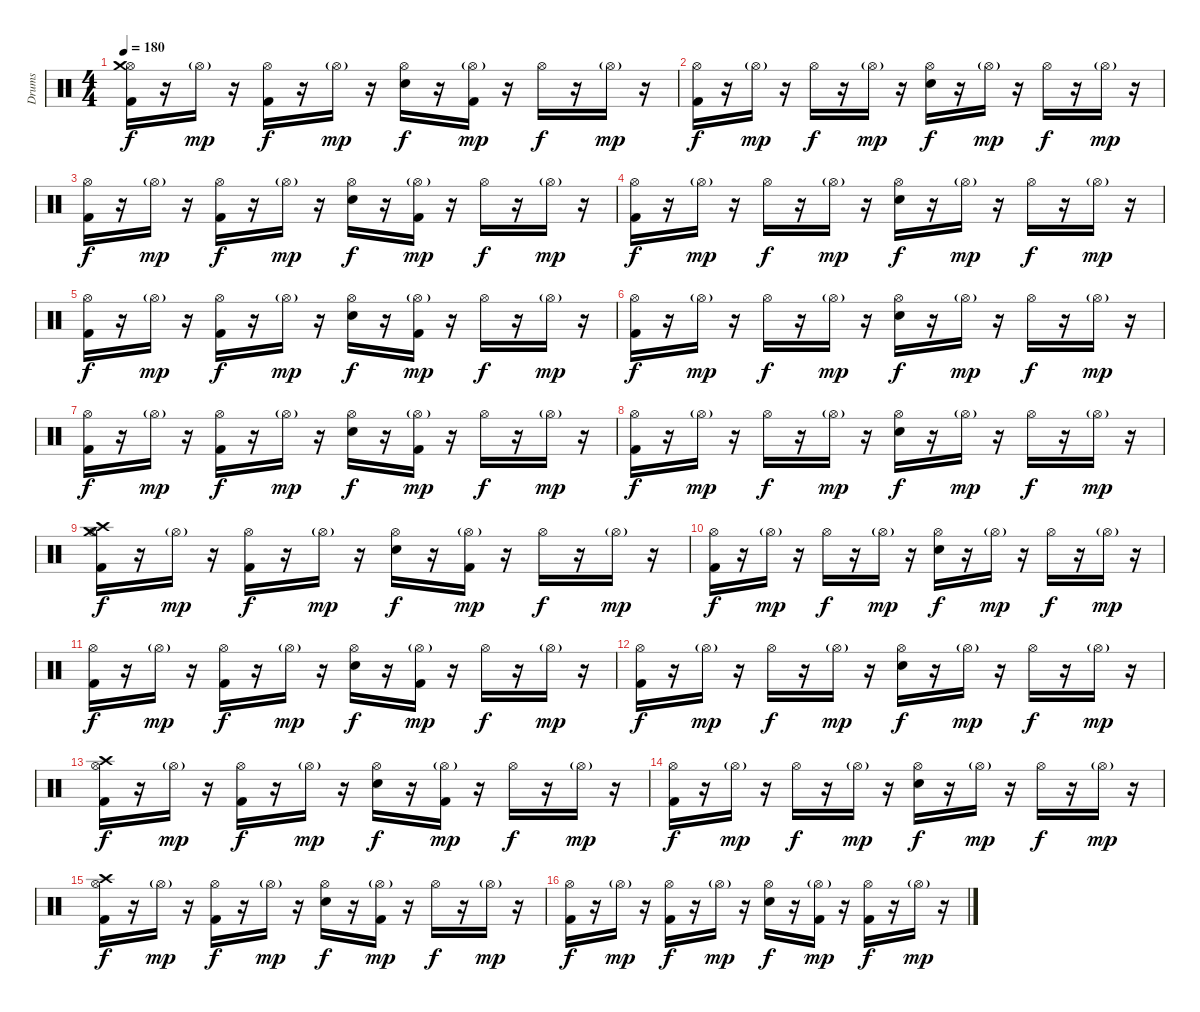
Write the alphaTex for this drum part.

\track ("Drums" "Drums") {instrument percussion}
\staff {score}
\articulation defaults
\ts (4 4)
\tempo 180
\clef neutral
\ks c
("Hi-Hat (open)" "Crash medium (hit)" "Kick (hit) 2").16{dy f} r.16 "Hi-Hat (open)"{g}.16{dy mp} r.16 ("Hi-Hat (open)" "Kick (hit) 2").16{dy f} r.16 "Hi-Hat (open)"{g}.16{dy mp} r.16 ("Hi-Hat (open)" "Electric Snare (hit)").16{dy f} r.16 ("Hi-Hat (open)"{g} "Kick (hit) 2").16{dy mp} r.16 "Hi-Hat (open)".16{dy f} r.16 "Hi-Hat (open)"{g}.16{dy mp} r.16 |
("Hi-Hat (open)" "Kick (hit) 2").16{dy f} r.16 "Hi-Hat (open)"{g}.16{dy mp} r.16 "Hi-Hat (open)".16{dy f} r.16 "Hi-Hat (open)"{g}.16{dy mp} r.16 ("Hi-Hat (open)" "Electric Snare (hit)").16{dy f} r.16 "Hi-Hat (open)"{g}.16{dy mp} r.16 "Hi-Hat (open)".16{dy f} r.16 "Hi-Hat (open)"{g}.16{dy mp} r.16 |
("Hi-Hat (open)" "Kick (hit) 2").16{dy f} r.16 "Hi-Hat (open)"{g}.16{dy mp} r.16 ("Hi-Hat (open)" "Kick (hit) 2").16{dy f} r.16 "Hi-Hat (open)"{g}.16{dy mp} r.16 ("Hi-Hat (open)" "Electric Snare (hit)").16{dy f} r.16 ("Hi-Hat (open)"{g} "Kick (hit) 2").16{dy mp} r.16 "Hi-Hat (open)".16{dy f} r.16 "Hi-Hat (open)"{g}.16{dy mp} r.16 |
("Hi-Hat (open)" "Kick (hit) 2").16{dy f} r.16 "Hi-Hat (open)"{g}.16{dy mp} r.16 "Hi-Hat (open)".16{dy f} r.16 "Hi-Hat (open)"{g}.16{dy mp} r.16 ("Hi-Hat (open)" "Electric Snare (hit)").16{dy f} r.16 "Hi-Hat (open)"{g}.16{dy mp} r.16 "Hi-Hat (open)".16{dy f} r.16 "Hi-Hat (open)"{g}.16{dy mp} r.16 |
("Hi-Hat (open)" "Kick (hit) 2").16{dy f} r.16 "Hi-Hat (open)"{g}.16{dy mp} r.16 ("Hi-Hat (open)" "Kick (hit) 2").16{dy f} r.16 "Hi-Hat (open)"{g}.16{dy mp} r.16 ("Hi-Hat (open)" "Electric Snare (hit)").16{dy f} r.16 ("Hi-Hat (open)"{g} "Kick (hit) 2").16{dy mp} r.16 "Hi-Hat (open)".16{dy f} r.16 "Hi-Hat (open)"{g}.16{dy mp} r.16 |
("Hi-Hat (open)" "Kick (hit) 2").16{dy f} r.16 "Hi-Hat (open)"{g}.16{dy mp} r.16 "Hi-Hat (open)".16{dy f} r.16 "Hi-Hat (open)"{g}.16{dy mp} r.16 ("Hi-Hat (open)" "Electric Snare (hit)").16{dy f} r.16 "Hi-Hat (open)"{g}.16{dy mp} r.16 "Hi-Hat (open)".16{dy f} r.16 "Hi-Hat (open)"{g}.16{dy mp} r.16 |
("Hi-Hat (open)" "Kick (hit) 2").16{dy f} r.16 "Hi-Hat (open)"{g}.16{dy mp} r.16 ("Hi-Hat (open)" "Kick (hit) 2").16{dy f} r.16 "Hi-Hat (open)"{g}.16{dy mp} r.16 ("Hi-Hat (open)" "Electric Snare (hit)").16{dy f} r.16 ("Hi-Hat (open)"{g} "Kick (hit) 2").16{dy mp} r.16 "Hi-Hat (open)".16{dy f} r.16 "Hi-Hat (open)"{g}.16{dy mp} r.16 |
("Hi-Hat (open)" "Kick (hit) 2").16{dy f} r.16 "Hi-Hat (open)"{g}.16{dy mp} r.16 "Hi-Hat (open)".16{dy f} r.16 "Hi-Hat (open)"{g}.16{dy mp} r.16 ("Hi-Hat (open)" "Electric Snare (hit)").16{dy f} r.16 "Hi-Hat (open)"{g}.16{dy mp} r.16 "Hi-Hat (open)".16{dy f} r.16 "Hi-Hat (open)"{g}.16{dy mp} r.16 |
("Hi-Hat (open)" "Crash medium (hit)" "Kick (hit) 2" "Crash high (hit)").16{dy f} r.16 "Hi-Hat (open)"{g}.16{dy mp} r.16 ("Hi-Hat (open)" "Kick (hit) 2").16{dy f} r.16 "Hi-Hat (open)"{g}.16{dy mp} r.16 ("Hi-Hat (open)" "Electric Snare (hit)").16{dy f} r.16 ("Hi-Hat (open)"{g} "Kick (hit) 2").16{dy mp} r.16 "Hi-Hat (open)".16{dy f} r.16 "Hi-Hat (open)"{g}.16{dy mp} r.16 |
("Hi-Hat (open)" "Kick (hit) 2").16{dy f} r.16 "Hi-Hat (open)"{g}.16{dy mp} r.16 "Hi-Hat (open)".16{dy f} r.16 "Hi-Hat (open)"{g}.16{dy mp} r.16 ("Hi-Hat (open)" "Electric Snare (hit)").16{dy f} r.16 "Hi-Hat (open)"{g}.16{dy mp} r.16 "Hi-Hat (open)".16{dy f} r.16 "Hi-Hat (open)"{g}.16{dy mp} r.16 |
("Hi-Hat (open)" "Kick (hit) 2").16{dy f} r.16 "Hi-Hat (open)"{g}.16{dy mp} r.16 ("Hi-Hat (open)" "Kick (hit) 2").16{dy f} r.16 "Hi-Hat (open)"{g}.16{dy mp} r.16 ("Hi-Hat (open)" "Electric Snare (hit)").16{dy f} r.16 ("Hi-Hat (open)"{g} "Kick (hit) 2").16{dy mp} r.16 "Hi-Hat (open)".16{dy f} r.16 "Hi-Hat (open)"{g}.16{dy mp} r.16 |
("Hi-Hat (open)" "Kick (hit) 2").16{dy f} r.16 "Hi-Hat (open)"{g}.16{dy mp} r.16 "Hi-Hat (open)".16{dy f} r.16 "Hi-Hat (open)"{g}.16{dy mp} r.16 ("Hi-Hat (open)" "Electric Snare (hit)").16{dy f} r.16 "Hi-Hat (open)"{g}.16{dy mp} r.16 "Hi-Hat (open)".16{dy f} r.16 "Hi-Hat (open)"{g}.16{dy mp} r.16 |
("Hi-Hat (open)" "Kick (hit) 2" "Crash high (hit)").16{dy f} r.16 "Hi-Hat (open)"{g}.16{dy mp} r.16 ("Hi-Hat (open)" "Kick (hit) 2").16{dy f} r.16 "Hi-Hat (open)"{g}.16{dy mp} r.16 ("Hi-Hat (open)" "Electric Snare (hit)").16{dy f} r.16 ("Hi-Hat (open)"{g} "Kick (hit) 2").16{dy mp} r.16 "Hi-Hat (open)".16{dy f} r.16 "Hi-Hat (open)"{g}.16{dy mp} r.16 |
("Hi-Hat (open)" "Kick (hit) 2").16{dy f} r.16 "Hi-Hat (open)"{g}.16{dy mp} r.16 "Hi-Hat (open)".16{dy f} r.16 "Hi-Hat (open)"{g}.16{dy mp} r.16 ("Hi-Hat (open)" "Electric Snare (hit)").16{dy f} r.16 "Hi-Hat (open)"{g}.16{dy mp} r.16 "Hi-Hat (open)".16{dy f} r.16 "Hi-Hat (open)"{g}.16{dy mp} r.16 |
("Hi-Hat (open)" "Crash high (hit)" "Kick (hit) 2").16{dy f} r.16 "Hi-Hat (open)"{g}.16{dy mp} r.16 ("Hi-Hat (open)" "Kick (hit) 2").16{dy f} r.16 "Hi-Hat (open)"{g}.16{dy mp} r.16 ("Hi-Hat (open)" "Electric Snare (hit)").16{dy f} r.16 ("Hi-Hat (open)"{g} "Kick (hit) 2").16{dy mp} r.16 "Hi-Hat (open)".16{dy f} r.16 "Hi-Hat (open)"{g}.16{dy mp} r.16 |
("Hi-Hat (open)" "Kick (hit) 2").16{dy f} r.16 "Hi-Hat (open)"{g}.16{dy mp} r.16 ("Hi-Hat (open)" "Kick (hit) 2").16{dy f} r.16 "Hi-Hat (open)"{g}.16{dy mp} r.16 ("Hi-Hat (open)" "Electric Snare (hit)").16{dy f} r.16 ("Hi-Hat (open)"{g} "Kick (hit) 2").16{dy mp} r.16 ("Hi-Hat (open)" "Kick (hit) 2").16{dy f} r.16 "Hi-Hat (open)"{g}.16{dy mp} r.16
